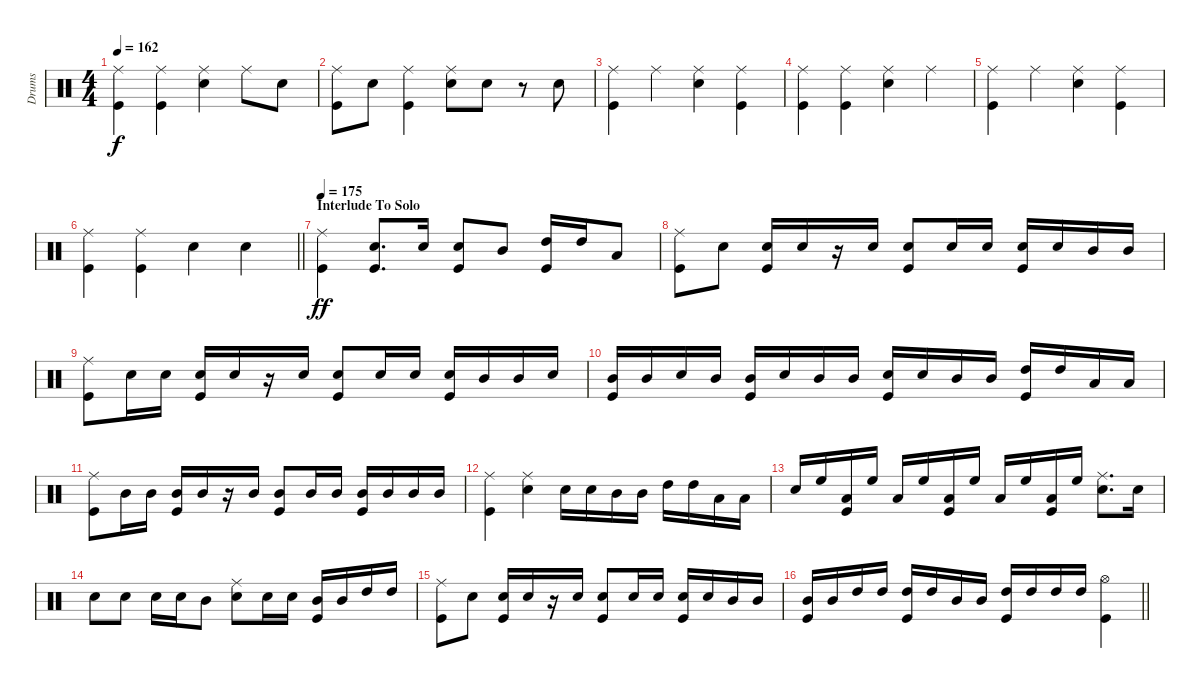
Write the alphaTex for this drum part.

\track ("Drums" "Drums") {instrument percussion}
\staff {score}
\articulation defaults
\ts (4 4)
\tempo 162
\clef neutral
\ks c
("Ride (middle)" "Kick (hit)").4{dy f} ("Ride (middle)" "Kick (hit)").4 ("Ride (middle)" "Snare (hit) 2").4 "Ride (middle)".8 "Snare (hit) 2".8 |
("Ride (middle)" "Kick (hit)").8 "Snare (hit) 2".8 ("Ride (middle)" "Kick (hit)").4 ("Ride (middle)" "Snare (hit) 2").8 "Snare (hit) 2".8 r.8 "Snare (hit) 2".8 |
("Ride (middle)" "Kick (hit)").4 "Ride (middle)".4 ("Ride (middle)" "Snare (hit) 2").4 ("Ride (middle)" "Kick (hit)").4 |
("Ride (middle)" "Kick (hit)").4 ("Ride (middle)" "Kick (hit)").4 ("Ride (middle)" "Snare (hit) 2").4 "Ride (middle)".4 |
("Ride (middle)" "Kick (hit)").4 "Ride (middle)".4 ("Ride (middle)" "Snare (hit) 2").4 ("Ride (middle)" "Kick (hit)").4 |
\barLineRight lightlight
("Ride (middle)" "Kick (hit)").4 ("Ride (middle)" "Kick (hit)").4 "Snare (hit) 2".4 "Snare (hit) 2".4 |
\section ("" "Interlude To Solo")
\tempo 175
("Ride (middle)" "Kick (hit)").4{dy ff} ("Snare (hit) 2" "Kick (hit)").8{d} "Snare (hit) 2".16 ("Snare (hit) 2" "Kick (hit)").8 "Mid Tom (hit)".8 ("High Tom (hit)" "Kick (hit)").16 "High Tom (hit)".16 "Low Tom (hit)".8 |
("Ride (middle)" "Kick (hit)").8 "Snare (hit) 2".8 ("Snare (hit) 2" "Kick (hit)").16 "Snare (hit) 2".16 r.16 "Snare (hit) 2".16 ("Snare (hit) 2" "Kick (hit)").8 "Snare (hit) 2".16 "Snare (hit) 2".16 ("Snare (hit) 2" "Kick (hit)").16 "Snare (hit) 2".16 "Mid Tom (hit)".16 "Mid Tom (hit)".16 |
("Ride (middle)" "Kick (hit)").8 "Snare (hit) 2".16 "Snare (hit) 2".16 ("Snare (hit) 2" "Kick (hit)").16 "Snare (hit) 2".16 r.16 "Snare (hit) 2".16 ("Snare (hit) 2" "Kick (hit)").8 "Snare (hit) 2".16 "Snare (hit) 2".16 ("Snare (hit) 2" "Kick (hit)").16 "Mid Tom (hit)".16 "Mid Tom (hit)".16 "Snare (hit) 2".16 |
("Mid Tom (hit)" "Kick (hit)").16 "Mid Tom (hit)".16 "Snare (hit) 2".16 "Mid Tom (hit)".16 ("Mid Tom (hit)" "Kick (hit)").16 "Snare (hit) 2".16 "Mid Tom (hit)".16 "Mid Tom (hit)".16 ("Snare (hit) 2" "Kick (hit)").16 "Snare (hit) 2".16 "Mid Tom (hit)".16 "Mid Tom (hit)".16 ("High Tom (hit)" "Kick (hit)").16 "High Tom (hit)".16 "Low Tom (hit)".16 "Low Tom (hit)".16 |
("Ride (middle)" "Kick (hit)").8 "Mid Tom (hit)".16 "Mid Tom (hit)".16 ("Mid Tom (hit)" "Kick (hit)").16 "Mid Tom (hit)".16 r.16 "Mid Tom (hit)".16 ("Mid Tom (hit)" "Kick (hit)").8 "Mid Tom (hit)".16 "Mid Tom (hit)".16 ("Mid Tom (hit)" "Kick (hit)").16 "Mid Tom (hit)".16 "Mid Tom (hit)".16 "Mid Tom (hit)".16 |
("Ride (middle)" "Kick (hit)").4 ("Ride (middle)" "Snare (hit) 2").4 "Snare (hit) 2".16 "Snare (hit) 2".16 "Mid Tom (hit)".16 "Mid Tom (hit)".16 "High Tom (hit)".16 "High Tom (hit)".16 "Low Tom (hit)".16 "Low Tom (hit)".16 |
"Snare (hit) 2".16 "High Floor Tom (hit)".16 ("Low Tom (hit)" "Kick (hit)").16 "High Floor Tom (hit)".16 "Low Tom (hit)".16 "High Floor Tom (hit)".16 ("Low Tom (hit)" "Kick (hit)").16 "High Floor Tom (hit)".16 "Low Tom (hit)".16 "High Floor Tom (hit)".16 ("Low Tom (hit)" "Kick (hit)").16 "High Floor Tom (hit)".16 ("Ride (middle)" "Snare (hit) 2").8{d} "Snare (hit) 2".16 |
"Snare (hit) 2".8 "Snare (hit) 2".8 "Snare (hit) 2".16 "Snare (hit) 2".16 "Mid Tom (hit)".8 ("Ride (middle)" "Snare (hit) 2").8 "Snare (hit) 2".16 "Snare (hit) 2".16 ("Mid Tom (hit)" "Kick (hit)").16 "Mid Tom (hit)".16 "High Tom (hit)".16 "High Tom (hit)".16 |
("Ride (middle)" "Kick (hit)").8 "Snare (hit) 2".8 ("Snare (hit) 2" "Kick (hit)").16 "Snare (hit) 2".16 r.16 "Snare (hit) 2".16 ("Snare (hit) 2" "Kick (hit)").8 "Snare (hit) 2".16 "Snare (hit) 2".16 ("Snare (hit) 2" "Kick (hit)").16 "Snare (hit) 2".16 "Mid Tom (hit)".16 "Mid Tom (hit)".16 |
\barLineRight lightlight
("Mid Tom (hit)" "Kick (hit)").16 "Mid Tom (hit)".16 "High Tom (hit)".16 "High Tom (hit)".16 ("High Tom (hit)" "Kick (hit)").16 "High Tom (hit)".16 "Mid Tom (hit)".16 "Mid Tom (hit)".16 ("High Tom (hit)" "Kick (hit)").16 "High Tom (hit)".16 "High Tom (hit)".16 "High Tom (hit)".16 ("Hi-Hat (open)" "Kick (hit)").4
